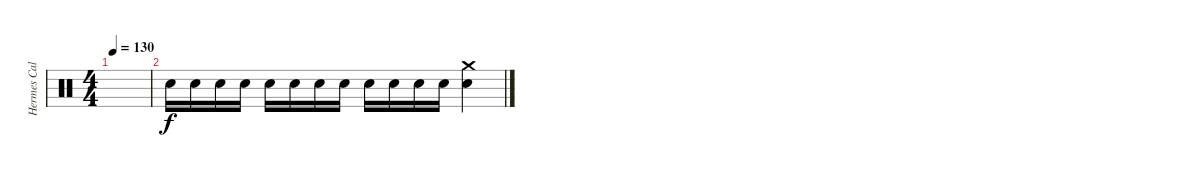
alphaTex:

\track ("Hermes Calabria" "Hermes Cal") {instrument percussion}
\staff {score}
\articulation defaults
\ts (4 4)
\tempo 130
\clef neutral
\ks c
|
"Snare (hit) 2".16 "Snare (hit) 2".16 "Snare (hit) 2".16 "Snare (hit) 2".16 "Snare (hit) 2".16 "Snare (hit) 2".16 "Snare (hit) 2".16 "Snare (hit) 2".16 "Snare (hit) 2".16 "Snare (hit) 2".16 "Snare (hit) 2".16 "Snare (hit) 2".16 ("Crash medium (hit)" "Snare (hit) 2").4
